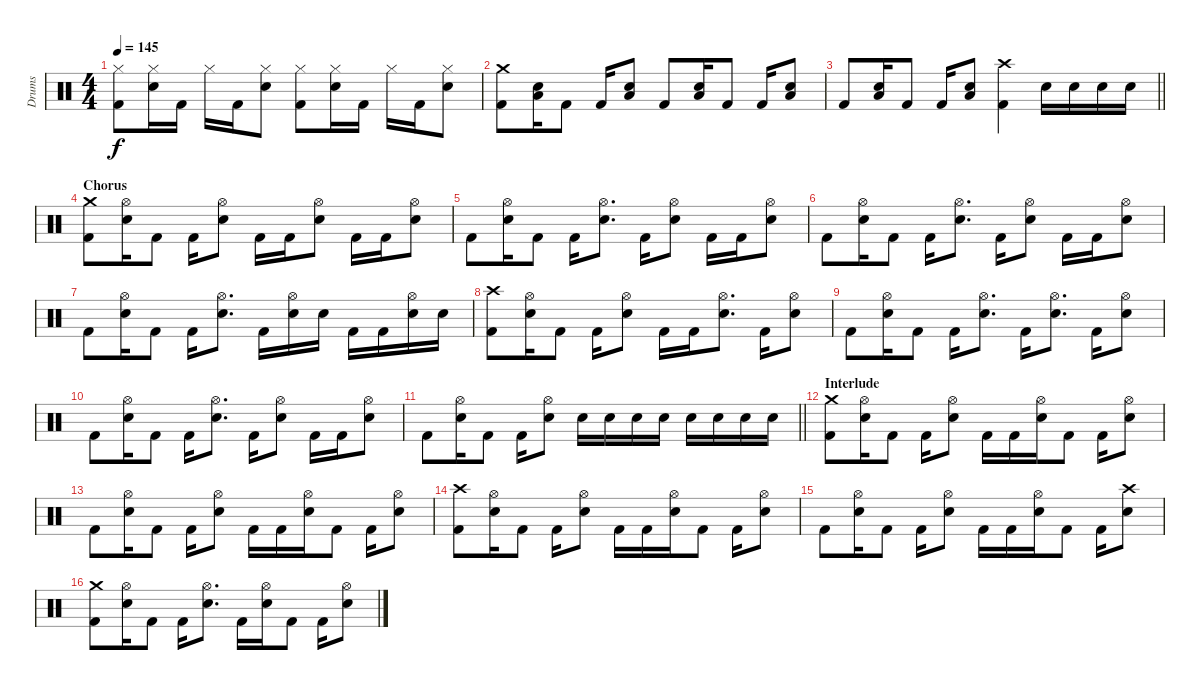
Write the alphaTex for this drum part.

\track ("Drums" "Drums") {instrument percussion}
\staff {score}
\articulation defaults
\ts (4 4)
\tempo 145
\clef neutral
\ks c
("Hi-Hat (closed)" "Kick (hit) 2").8{dy f} ("Hi-Hat (closed)" "Electric Snare (hit)").16 "Kick (hit) 2".16 "Hi-Hat (closed)".16 "Kick (hit) 2".16 ("Hi-Hat (closed)" "Electric Snare (hit)").8 ("Hi-Hat (closed)" "Kick (hit) 2").8 ("Hi-Hat (closed)" "Electric Snare (hit)").16 "Kick (hit) 2".16 "Hi-Hat (closed)".16 "Kick (hit) 2".16 ("Hi-Hat (closed)" "Electric Snare (hit)").8 |
("Crash medium (hit)" "Kick (hit) 2").8 ("Low Floor Tom (hit)" "Electric Snare (hit)").16 "Kick (hit) 2".8 "Kick (hit) 2".16 ("Low Floor Tom (hit)" "Electric Snare (hit)").8 "Kick (hit) 2".8 ("Low Floor Tom (hit)" "Electric Snare (hit)").16 "Kick (hit) 2".8 "Kick (hit) 2".16 ("Low Floor Tom (hit)" "Electric Snare (hit)").8 |
\barLineRight lightlight "Kick (hit) 2".8
("Low Floor Tom (hit)" "Electric Snare (hit)").16 "Kick (hit) 2".8 "Kick (hit) 2".16 ("Low Floor Tom (hit)" "Electric Snare (hit)").8 ("Crash high (hit)" "Kick (hit) 2").4 "Electric Snare (hit)".16 "Electric Snare (hit)".16 "Electric Snare (hit)".16 "Electric Snare (hit)".16 |
\section ("" "Chorus")
("Crash medium (hit)" "Kick (hit) 2").8 ("Hi-Hat (open)" "Electric Snare (hit)").16 "Kick (hit) 2".8 "Kick (hit) 2".16 ("Hi-Hat (open)" "Electric Snare (hit)").8 "Kick (hit) 2".16 "Kick (hit) 2".16 ("Hi-Hat (open)" "Electric Snare (hit)").8 "Kick (hit) 2".16 "Kick (hit) 2".16 ("Hi-Hat (open)" "Electric Snare (hit)").8 |
"Kick (hit) 2".8 ("Hi-Hat (open)" "Electric Snare (hit)").16 "Kick (hit) 2".8 "Kick (hit) 2".16 ("Hi-Hat (open)" "Electric Snare (hit)").8{d} "Kick (hit) 2".16 ("Hi-Hat (open)" "Electric Snare (hit)").8 "Kick (hit) 2".16 "Kick (hit) 2".16 ("Hi-Hat (open)" "Electric Snare (hit)").8 |
"Kick (hit) 2".8 ("Hi-Hat (open)" "Electric Snare (hit)").16 "Kick (hit) 2".8 "Kick (hit) 2".16 ("Hi-Hat (open)" "Electric Snare (hit)").8{d} "Kick (hit) 2".16 ("Hi-Hat (open)" "Electric Snare (hit)").8 "Kick (hit) 2".16 "Kick (hit) 2".16 ("Hi-Hat (open)" "Electric Snare (hit)").8 |
"Kick (hit) 2".8 ("Hi-Hat (open)" "Electric Snare (hit)").16 "Kick (hit) 2".8 "Kick (hit) 2".16 ("Hi-Hat (open)" "Electric Snare (hit)").8{d} "Kick (hit) 2".16 ("Hi-Hat (open)" "Electric Snare (hit)").16 "Electric Snare (hit)".16 "Kick (hit) 2".16 "Kick (hit) 2".16 ("Hi-Hat (open)" "Electric Snare (hit)").16 "Electric Snare (hit)".16 |
("Crash high (hit)" "Kick (hit) 2").8 ("Hi-Hat (open)" "Electric Snare (hit)").16 "Kick (hit) 2".8 "Kick (hit) 2".16 ("Hi-Hat (open)" "Electric Snare (hit)").8 "Kick (hit) 2".16 "Kick (hit) 2".16 ("Hi-Hat (open)" "Electric Snare (hit)").8{d} "Kick (hit) 2".16 ("Hi-Hat (open)" "Electric Snare (hit)").8 |
"Kick (hit) 2".8 ("Hi-Hat (open)" "Electric Snare (hit)").16 "Kick (hit) 2".8 "Kick (hit) 2".16 ("Hi-Hat (open)" "Electric Snare (hit)").8{d} "Kick (hit) 2".16 ("Hi-Hat (open)" "Electric Snare (hit)").8{d} "Kick (hit) 2".16 ("Hi-Hat (open)" "Electric Snare (hit)").8 |
"Kick (hit) 2".8 ("Hi-Hat (open)" "Electric Snare (hit)").16 "Kick (hit) 2".8 "Kick (hit) 2".16 ("Hi-Hat (open)" "Electric Snare (hit)").8{d} "Kick (hit) 2".16 ("Hi-Hat (open)" "Electric Snare (hit)").8 "Kick (hit) 2".16 "Kick (hit) 2".16 ("Hi-Hat (open)" "Electric Snare (hit)").8 |
\barLineRight lightlight "Kick (hit) 2".8
("Hi-Hat (open)" "Electric Snare (hit)").16 "Kick (hit) 2".8 "Kick (hit) 2".16 ("Hi-Hat (open)" "Electric Snare (hit)").8 "Electric Snare (hit)".16 "Electric Snare (hit)".16 "Electric Snare (hit)".16 "Electric Snare (hit)".16 "Electric Snare (hit)".16 "Electric Snare (hit)".16 "Electric Snare (hit)".16 "Electric Snare (hit)".16 |
\section ("" "Interlude")
("Crash medium (hit)" "Kick (hit) 2").8 ("Hi-Hat (open)" "Electric Snare (hit)").16 "Kick (hit) 2".8 "Kick (hit) 2".16 ("Hi-Hat (open)" "Electric Snare (hit)").8 "Kick (hit) 2".16 "Kick (hit) 2".16 ("Hi-Hat (open)" "Electric Snare (hit)").16 "Kick (hit) 2".8 "Kick (hit) 2".16 ("Hi-Hat (open)" "Electric Snare (hit)").8 |
"Kick (hit) 2".8 ("Hi-Hat (open)" "Electric Snare (hit)").16 "Kick (hit) 2".8 "Kick (hit) 2".16 ("Hi-Hat (open)" "Electric Snare (hit)").8 "Kick (hit) 2".16 "Kick (hit) 2".16 ("Hi-Hat (open)" "Electric Snare (hit)").16 "Kick (hit) 2".8 "Kick (hit) 2".16 ("Hi-Hat (open)" "Electric Snare (hit)").8 |
("Crash high (hit)" "Kick (hit) 2").8 ("Hi-Hat (open)" "Electric Snare (hit)").16 "Kick (hit) 2".8 "Kick (hit) 2".16 ("Hi-Hat (open)" "Electric Snare (hit)").8 "Kick (hit) 2".16 "Kick (hit) 2".16 ("Hi-Hat (open)" "Electric Snare (hit)").16 "Kick (hit) 2".8 "Kick (hit) 2".16 ("Hi-Hat (open)" "Electric Snare (hit)").8 |
"Kick (hit) 2".8 ("Hi-Hat (open)" "Electric Snare (hit)").16 "Kick (hit) 2".8 "Kick (hit) 2".16 ("Hi-Hat (open)" "Electric Snare (hit)").8 "Kick (hit) 2".16 "Kick (hit) 2".16 ("Hi-Hat (open)" "Electric Snare (hit)").16 "Kick (hit) 2".8 "Kick (hit) 2".16 ("Crash high (hit)" "Electric Snare (hit)").8 |
("Crash medium (hit)" "Kick (hit) 2").8 ("Hi-Hat (open)" "Electric Snare (hit)").16 "Kick (hit) 2".8 "Kick (hit) 2".16 ("Hi-Hat (open)" "Electric Snare (hit)").8{d} "Kick (hit) 2".16 ("Hi-Hat (open)" "Electric Snare (hit)").16 "Kick (hit) 2".8 "Kick (hit) 2".16 ("Hi-Hat (open)" "Electric Snare (hit)").8
